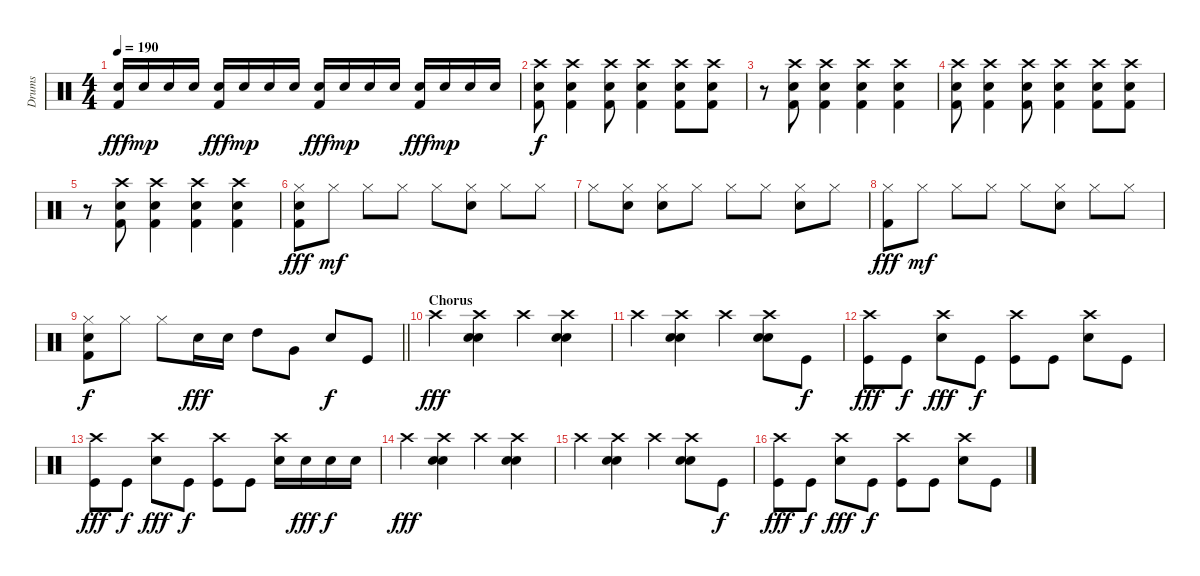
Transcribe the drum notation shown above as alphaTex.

\track ("Drums" "Drums") {instrument percussion}
\staff {score}
\articulation defaults
\ts (4 4)
\tempo 190
\clef neutral
\ks c
("Snare (hit) 2" "Kick (hit) 2").16{dy fff} "Snare (hit) 2".16{dy mp} "Snare (hit) 2".16 "Snare (hit) 2".16 ("Snare (hit) 2" "Kick (hit) 2").16{dy fff} "Snare (hit) 2".16{dy mp} "Snare (hit) 2".16 "Snare (hit) 2".16 ("Snare (hit) 2" "Kick (hit) 2").16{dy fff} "Snare (hit) 2".16{dy mp} "Snare (hit) 2".16 "Snare (hit) 2".16 ("Snare (hit) 2" "Kick (hit) 2").16{dy fff} "Snare (hit) 2".16{dy mp} "Snare (hit) 2".16 "Snare (hit) 2".16 |
("Crash high (hit)" "Snare (hit) 2" "Kick (hit) 2").8{dy f} ("Crash high (hit)" "Snare (hit) 2" "Kick (hit) 2").4 ("Crash high (hit)" "Snare (hit) 2" "Kick (hit) 2").8 ("Crash high (hit)" "Snare (hit) 2" "Kick (hit) 2").4 ("Crash high (hit)" "Snare (hit) 2" "Kick (hit) 2").8 ("Crash high (hit)" "Snare (hit) 2" "Kick (hit) 2").8 |
r.8 ("Crash high (hit)" "Snare (hit) 2" "Kick (hit) 2").8 ("Crash high (hit)" "Snare (hit) 2" "Kick (hit) 2").4 ("Crash high (hit)" "Snare (hit) 2" "Kick (hit) 2").4 ("Crash high (hit)" "Snare (hit) 2" "Kick (hit) 2").4 |
("Crash high (hit)" "Snare (hit) 2" "Kick (hit) 2").8 ("Crash high (hit)" "Snare (hit) 2" "Kick (hit) 2").4 ("Crash high (hit)" "Snare (hit) 2" "Kick (hit) 2").8 ("Crash high (hit)" "Snare (hit) 2" "Kick (hit) 2").4 ("Crash high (hit)" "Snare (hit) 2" "Kick (hit) 2").8 ("Crash high (hit)" "Snare (hit) 2" "Kick (hit) 2").8 |
r.8 ("Crash high (hit)" "Snare (hit) 2" "Kick (hit) 2").8 ("Crash high (hit)" "Snare (hit) 2" "Kick (hit) 2").4 ("Crash high (hit)" "Snare (hit) 2" "Kick (hit) 2").4 ("Crash high (hit)" "Snare (hit) 2" "Kick (hit) 2").4 |
("Hi-Hat (closed)" "Snare (hit) 2" "Kick (hit) 2").8{dy fff} "Hi-Hat (closed)".8{dy mf} "Hi-Hat (closed)".8 "Hi-Hat (closed)".8 "Hi-Hat (closed)".8 ("Hi-Hat (closed)" "Snare (hit) 2").8 "Hi-Hat (closed)".8 "Hi-Hat (closed)".8 |
"Hi-Hat (closed)".8 ("Hi-Hat (closed)" "Snare (hit) 2").8 ("Hi-Hat (closed)" "Snare (hit) 2").8 "Hi-Hat (closed)".8 "Hi-Hat (closed)".8 "Hi-Hat (closed)".8 ("Hi-Hat (closed)" "Snare (hit) 2").8 "Hi-Hat (closed)".8 |
("Hi-Hat (closed)" "Kick (hit) 2").8{dy fff} "Hi-Hat (closed)".8{dy mf} "Hi-Hat (closed)".8 "Hi-Hat (closed)".8 "Hi-Hat (closed)".8 ("Hi-Hat (closed)" "Snare (hit) 2").8 "Hi-Hat (closed)".8 "Hi-Hat (closed)".8 |
\barLineRight lightlight
("Hi-Hat (closed)" "Snare (hit) 2" "Kick (hit) 2").8{dy f} "Hi-Hat (closed)".8 "Hi-Hat (closed)".8 "Snare (hit) 2".16{dy fff} "Snare (hit) 2".16 "High Tom (hit)".8 "Very Low Tom (hit)".8 "Snare (hit) 2".8{dy f} "Kick (hit)".8 |
\section ("" "Chorus")
"Crash high (hit)".4{dy fff} ("Crash high (hit)" "Snare (hit) 2" "Snare (hit) 2").4 "Crash high (hit)".4 ("Crash high (hit)" "Snare (hit) 2" "Snare (hit) 2").4 |
"Crash high (hit)".4 ("Crash high (hit)" "Snare (hit) 2" "Snare (hit) 2").4 "Crash high (hit)".4 ("Crash high (hit)" "Snare (hit) 2" "Snare (hit) 2").8 "Kick (hit)".8{dy f} |
("Crash high (hit)" "Kick (hit)").8{dy fff} "Kick (hit)".8{dy f} ("Crash high (hit)" "Snare (hit) 2").8{dy fff} "Kick (hit)".8{dy f} ("Crash high (hit)" "Kick (hit)").8 "Kick (hit)".8 ("Crash high (hit)" "Snare (hit) 2").8 "Kick (hit)".8 |
("Crash high (hit)" "Kick (hit)").8{dy fff} "Kick (hit)".8{dy f} ("Crash high (hit)" "Snare (hit) 2").8{dy fff} "Kick (hit)".8{dy f} ("Crash high (hit)" "Kick (hit)").8 "Kick (hit)".8 ("Crash high (hit)" "Snare (hit) 2").16 "Snare (hit) 2".16{dy fff} "Snare (hit) 2".16{dy f} "Snare (hit) 2".16 |
"Crash high (hit)".4{dy fff} ("Crash high (hit)" "Snare (hit) 2" "Snare (hit) 2").4 "Crash high (hit)".4 ("Crash high (hit)" "Snare (hit) 2" "Snare (hit) 2").4 |
"Crash high (hit)".4 ("Crash high (hit)" "Snare (hit) 2" "Snare (hit) 2").4 "Crash high (hit)".4 ("Crash high (hit)" "Snare (hit) 2" "Snare (hit) 2").8 "Kick (hit)".8{dy f} |
("Crash high (hit)" "Kick (hit)").8{dy fff} "Kick (hit)".8{dy f} ("Crash high (hit)" "Snare (hit) 2").8{dy fff} "Kick (hit)".8{dy f} ("Crash high (hit)" "Kick (hit)").8 "Kick (hit)".8 ("Crash high (hit)" "Snare (hit) 2").8 "Kick (hit)".8
